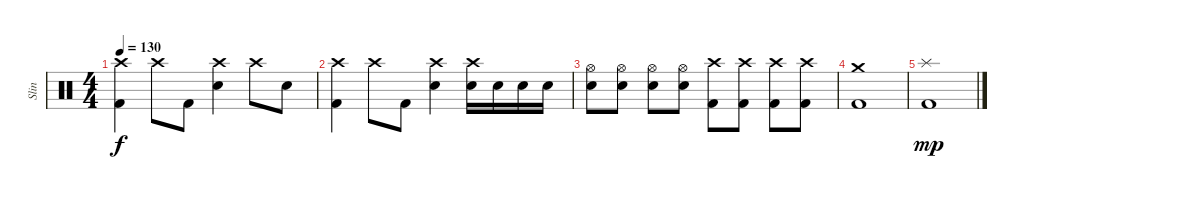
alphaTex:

\track ("Slin" "Slin") {instrument percussion}
\staff {score}
\articulation defaults
\ts (4 4)
\tempo 130
\clef neutral
\ks c
("Crash high (hit)" "Kick (hit) 2").4{dy f} "Crash high (hit)".8 "Kick (hit) 2".8 ("Crash high (hit)" "Snare (hit) 2").4 "Crash high (hit)".8 "Snare (hit) 2".8 |
("Crash high (hit)" "Kick (hit) 2").4 "Crash high (hit)".8 "Kick (hit) 2".8 ("Crash high (hit)" "Snare (hit) 2").4 ("Crash high (hit)" "Snare (hit) 2").16 "Snare (hit) 2".16 "Snare (hit) 2".16 "Snare (hit) 2".16 |
("Hi-Hat (open)" "Snare (hit) 2").8 ("Hi-Hat (open)" "Snare (hit) 2").8 ("Hi-Hat (open)" "Snare (hit) 2").8 ("Hi-Hat (open)" "Snare (hit) 2").8 ("Crash high (hit)" "Kick (hit) 2").8 ("Crash high (hit)" "Kick (hit) 2").8 ("Crash high (hit)" "Kick (hit) 2").8 ("Crash high (hit)" "Kick (hit) 2").8 |
("Crash medium (hit)" "Kick (hit) 2").1 |
("Splash (hit)" "Kick (hit) 2").1{dy mp}
